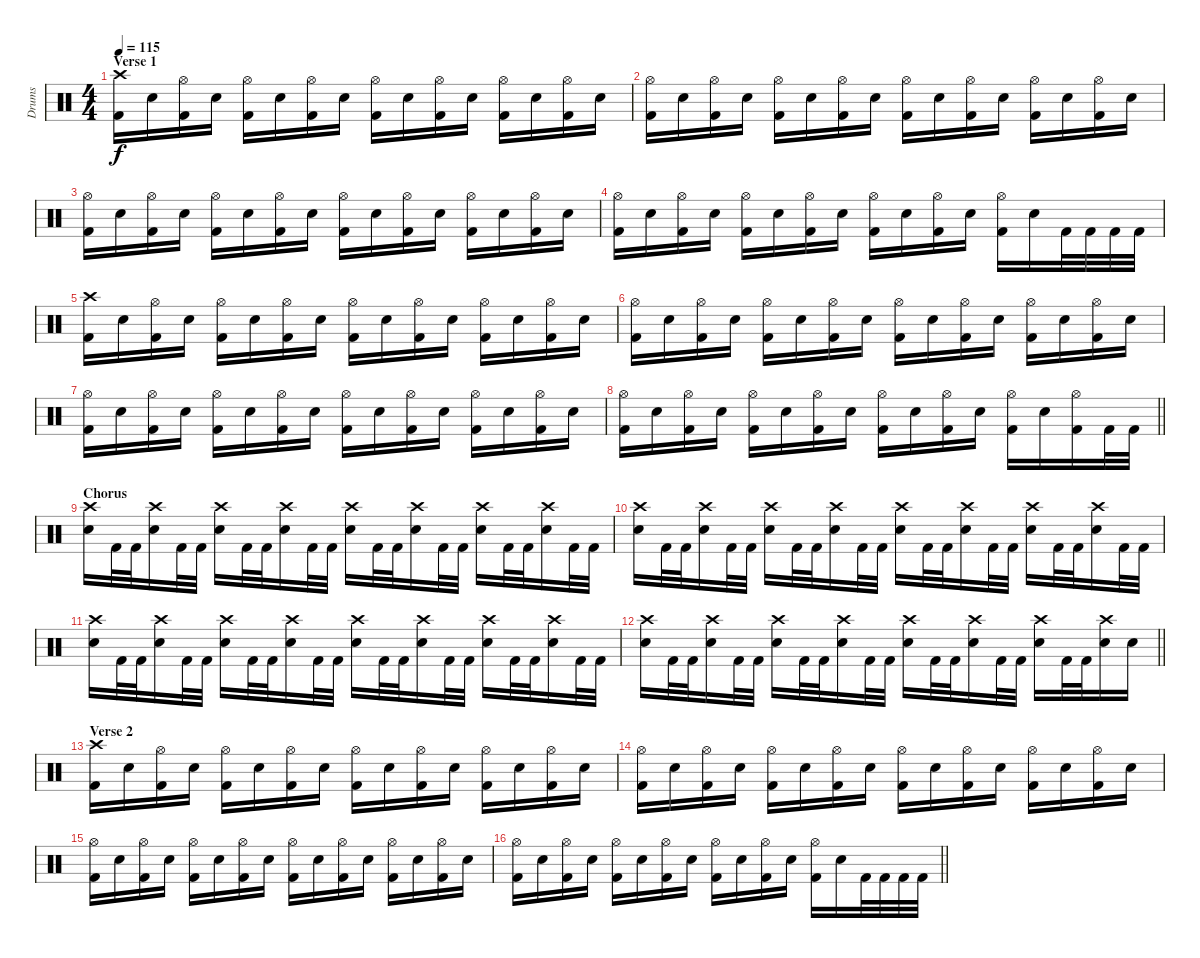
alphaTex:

\track ("Drums" "Drums") {instrument percussion}
\staff {score}
\articulation defaults
\ts (4 4)
\section ("" "Verse 1")
\tempo 115
\clef neutral
\ks c
("Crash high (hit)" "Kick (hit) 2").16{dy f} "Electric Snare (hit)".16 ("Hi-Hat (open)" "Kick (hit) 2").16 "Electric Snare (hit)".16 ("Hi-Hat (open)" "Kick (hit) 2").16 "Electric Snare (hit)".16 ("Hi-Hat (open)" "Kick (hit) 2").16 "Electric Snare (hit)".16 ("Hi-Hat (open)" "Kick (hit) 2").16 "Electric Snare (hit)".16 ("Hi-Hat (open)" "Kick (hit) 2").16 "Electric Snare (hit)".16 ("Hi-Hat (open)" "Kick (hit) 2").16 "Electric Snare (hit)".16 ("Hi-Hat (open)" "Kick (hit) 2").16 "Electric Snare (hit)".16 |
("Hi-Hat (open)" "Kick (hit) 2").16 "Electric Snare (hit)".16 ("Hi-Hat (open)" "Kick (hit) 2").16 "Electric Snare (hit)".16 ("Hi-Hat (open)" "Kick (hit) 2").16 "Electric Snare (hit)".16 ("Hi-Hat (open)" "Kick (hit) 2").16 "Electric Snare (hit)".16 ("Hi-Hat (open)" "Kick (hit) 2").16 "Electric Snare (hit)".16 ("Hi-Hat (open)" "Kick (hit) 2").16 "Electric Snare (hit)".16 ("Hi-Hat (open)" "Kick (hit) 2").16 "Electric Snare (hit)".16 ("Hi-Hat (open)" "Kick (hit) 2").16 "Electric Snare (hit)".16 |
("Hi-Hat (open)" "Kick (hit) 2").16 "Electric Snare (hit)".16 ("Hi-Hat (open)" "Kick (hit) 2").16 "Electric Snare (hit)".16 ("Hi-Hat (open)" "Kick (hit) 2").16 "Electric Snare (hit)".16 ("Hi-Hat (open)" "Kick (hit) 2").16 "Electric Snare (hit)".16 ("Hi-Hat (open)" "Kick (hit) 2").16 "Electric Snare (hit)".16 ("Hi-Hat (open)" "Kick (hit) 2").16 "Electric Snare (hit)".16 ("Hi-Hat (open)" "Kick (hit) 2").16 "Electric Snare (hit)".16 ("Hi-Hat (open)" "Kick (hit) 2").16 "Electric Snare (hit)".16 |
("Hi-Hat (open)" "Kick (hit) 2").16 "Electric Snare (hit)".16 ("Hi-Hat (open)" "Kick (hit) 2").16 "Electric Snare (hit)".16 ("Hi-Hat (open)" "Kick (hit) 2").16 "Electric Snare (hit)".16 ("Hi-Hat (open)" "Kick (hit) 2").16 "Electric Snare (hit)".16 ("Hi-Hat (open)" "Kick (hit) 2").16 "Electric Snare (hit)".16 ("Hi-Hat (open)" "Kick (hit) 2").16 "Electric Snare (hit)".16 ("Hi-Hat (open)" "Kick (hit) 2").16 "Electric Snare (hit)".16 "Kick (hit) 2".32 "Kick (hit) 2".32 "Kick (hit) 2".32 "Kick (hit) 2".32 |
("Crash high (hit)" "Kick (hit) 2").16 "Electric Snare (hit)".16 ("Hi-Hat (open)" "Kick (hit) 2").16 "Electric Snare (hit)".16 ("Hi-Hat (open)" "Kick (hit) 2").16 "Electric Snare (hit)".16 ("Hi-Hat (open)" "Kick (hit) 2").16 "Electric Snare (hit)".16 ("Hi-Hat (open)" "Kick (hit) 2").16 "Electric Snare (hit)".16 ("Hi-Hat (open)" "Kick (hit) 2").16 "Electric Snare (hit)".16 ("Hi-Hat (open)" "Kick (hit) 2").16 "Electric Snare (hit)".16 ("Hi-Hat (open)" "Kick (hit) 2").16 "Electric Snare (hit)".16 |
("Hi-Hat (open)" "Kick (hit) 2").16 "Electric Snare (hit)".16 ("Hi-Hat (open)" "Kick (hit) 2").16 "Electric Snare (hit)".16 ("Hi-Hat (open)" "Kick (hit) 2").16 "Electric Snare (hit)".16 ("Hi-Hat (open)" "Kick (hit) 2").16 "Electric Snare (hit)".16 ("Hi-Hat (open)" "Kick (hit) 2").16 "Electric Snare (hit)".16 ("Hi-Hat (open)" "Kick (hit) 2").16 "Electric Snare (hit)".16 ("Hi-Hat (open)" "Kick (hit) 2").16 "Electric Snare (hit)".16 ("Hi-Hat (open)" "Kick (hit) 2").16 "Electric Snare (hit)".16 |
("Hi-Hat (open)" "Kick (hit) 2").16 "Electric Snare (hit)".16 ("Hi-Hat (open)" "Kick (hit) 2").16 "Electric Snare (hit)".16 ("Hi-Hat (open)" "Kick (hit) 2").16 "Electric Snare (hit)".16 ("Hi-Hat (open)" "Kick (hit) 2").16 "Electric Snare (hit)".16 ("Hi-Hat (open)" "Kick (hit) 2").16 "Electric Snare (hit)".16 ("Hi-Hat (open)" "Kick (hit) 2").16 "Electric Snare (hit)".16 ("Hi-Hat (open)" "Kick (hit) 2").16 "Electric Snare (hit)".16 ("Hi-Hat (open)" "Kick (hit) 2").16 "Electric Snare (hit)".16 |
\barLineRight lightlight
("Hi-Hat (open)" "Kick (hit) 2").16 "Electric Snare (hit)".16 ("Hi-Hat (open)" "Kick (hit) 2").16 "Electric Snare (hit)".16 ("Hi-Hat (open)" "Kick (hit) 2").16 "Electric Snare (hit)".16 ("Hi-Hat (open)" "Kick (hit) 2").16 "Electric Snare (hit)".16 ("Hi-Hat (open)" "Kick (hit) 2").16 "Electric Snare (hit)".16 ("Hi-Hat (open)" "Kick (hit) 2").16 "Electric Snare (hit)".16 ("Hi-Hat (open)" "Kick (hit) 2").16 "Electric Snare (hit)".16 ("Hi-Hat (open)" "Kick (hit) 2").16 "Kick (hit) 2".32 "Kick (hit) 2".32 |
\section ("" "Chorus")
("Crash high (hit)" "Electric Snare (hit)").16 "Kick (hit) 2".32 "Kick (hit) 2".32 ("Crash high (hit)" "Electric Snare (hit)").16 "Kick (hit) 2".32 "Kick (hit) 2".32 ("Crash high (hit)" "Electric Snare (hit)").16 "Kick (hit) 2".32 "Kick (hit) 2".32 ("Crash high (hit)" "Electric Snare (hit)").16 "Kick (hit) 2".32 "Kick (hit) 2".32 ("Crash high (hit)" "Electric Snare (hit)").16 "Kick (hit) 2".32 "Kick (hit) 2".32 ("Crash high (hit)" "Electric Snare (hit)").16 "Kick (hit) 2".32 "Kick (hit) 2".32 ("Crash high (hit)" "Electric Snare (hit)").16 "Kick (hit) 2".32 "Kick (hit) 2".32 ("Crash high (hit)" "Electric Snare (hit)").16 "Kick (hit) 2".32 "Kick (hit) 2".32 |
("Crash high (hit)" "Electric Snare (hit)").16 "Kick (hit) 2".32 "Kick (hit) 2".32 ("Crash high (hit)" "Electric Snare (hit)").16 "Kick (hit) 2".32 "Kick (hit) 2".32 ("Crash high (hit)" "Electric Snare (hit)").16 "Kick (hit) 2".32 "Kick (hit) 2".32 ("Crash high (hit)" "Electric Snare (hit)").16 "Kick (hit) 2".32 "Kick (hit) 2".32 ("Crash high (hit)" "Electric Snare (hit)").16 "Kick (hit) 2".32 "Kick (hit) 2".32 ("Crash high (hit)" "Electric Snare (hit)").16 "Kick (hit) 2".32 "Kick (hit) 2".32 ("Crash high (hit)" "Electric Snare (hit)").16 "Kick (hit) 2".32 "Kick (hit) 2".32 ("Crash high (hit)" "Electric Snare (hit)").16 "Kick (hit) 2".32 "Kick (hit) 2".32 |
("Crash high (hit)" "Electric Snare (hit)").16 "Kick (hit) 2".32 "Kick (hit) 2".32 ("Crash high (hit)" "Electric Snare (hit)").16 "Kick (hit) 2".32 "Kick (hit) 2".32 ("Crash high (hit)" "Electric Snare (hit)").16 "Kick (hit) 2".32 "Kick (hit) 2".32 ("Crash high (hit)" "Electric Snare (hit)").16 "Kick (hit) 2".32 "Kick (hit) 2".32 ("Crash high (hit)" "Electric Snare (hit)").16 "Kick (hit) 2".32 "Kick (hit) 2".32 ("Crash high (hit)" "Electric Snare (hit)").16 "Kick (hit) 2".32 "Kick (hit) 2".32 ("Crash high (hit)" "Electric Snare (hit)").16 "Kick (hit) 2".32 "Kick (hit) 2".32 ("Crash high (hit)" "Electric Snare (hit)").16 "Kick (hit) 2".32 "Kick (hit) 2".32 |
\barLineRight lightlight
("Crash high (hit)" "Electric Snare (hit)").16 "Kick (hit) 2".32 "Kick (hit) 2".32 ("Crash high (hit)" "Electric Snare (hit)").16 "Kick (hit) 2".32 "Kick (hit) 2".32 ("Crash high (hit)" "Electric Snare (hit)").16 "Kick (hit) 2".32 "Kick (hit) 2".32 ("Crash high (hit)" "Electric Snare (hit)").16 "Kick (hit) 2".32 "Kick (hit) 2".32 ("Crash high (hit)" "Electric Snare (hit)").16 "Kick (hit) 2".32 "Kick (hit) 2".32 ("Crash high (hit)" "Electric Snare (hit)").16 "Kick (hit) 2".32 "Kick (hit) 2".32 ("Crash high (hit)" "Electric Snare (hit)").16 "Kick (hit) 2".32 "Kick (hit) 2".32 ("Crash high (hit)" "Electric Snare (hit)").16 "Electric Snare (hit)".16 |
\section ("" "Verse 2")
("Crash high (hit)" "Kick (hit) 2").16 "Electric Snare (hit)".16 ("Hi-Hat (open)" "Kick (hit) 2").16 "Electric Snare (hit)".16 ("Hi-Hat (open)" "Kick (hit) 2").16 "Electric Snare (hit)".16 ("Hi-Hat (open)" "Kick (hit) 2").16 "Electric Snare (hit)".16 ("Hi-Hat (open)" "Kick (hit) 2").16 "Electric Snare (hit)".16 ("Hi-Hat (open)" "Kick (hit) 2").16 "Electric Snare (hit)".16 ("Hi-Hat (open)" "Kick (hit) 2").16 "Electric Snare (hit)".16 ("Hi-Hat (open)" "Kick (hit) 2").16 "Electric Snare (hit)".16 |
("Hi-Hat (open)" "Kick (hit) 2").16 "Electric Snare (hit)".16 ("Hi-Hat (open)" "Kick (hit) 2").16 "Electric Snare (hit)".16 ("Hi-Hat (open)" "Kick (hit) 2").16 "Electric Snare (hit)".16 ("Hi-Hat (open)" "Kick (hit) 2").16 "Electric Snare (hit)".16 ("Hi-Hat (open)" "Kick (hit) 2").16 "Electric Snare (hit)".16 ("Hi-Hat (open)" "Kick (hit) 2").16 "Electric Snare (hit)".16 ("Hi-Hat (open)" "Kick (hit) 2").16 "Electric Snare (hit)".16 ("Hi-Hat (open)" "Kick (hit) 2").16 "Electric Snare (hit)".16 |
("Hi-Hat (open)" "Kick (hit) 2").16 "Electric Snare (hit)".16 ("Hi-Hat (open)" "Kick (hit) 2").16 "Electric Snare (hit)".16 ("Hi-Hat (open)" "Kick (hit) 2").16 "Electric Snare (hit)".16 ("Hi-Hat (open)" "Kick (hit) 2").16 "Electric Snare (hit)".16 ("Hi-Hat (open)" "Kick (hit) 2").16 "Electric Snare (hit)".16 ("Hi-Hat (open)" "Kick (hit) 2").16 "Electric Snare (hit)".16 ("Hi-Hat (open)" "Kick (hit) 2").16 "Electric Snare (hit)".16 ("Hi-Hat (open)" "Kick (hit) 2").16 "Electric Snare (hit)".16 |
\barLineRight lightlight
("Hi-Hat (open)" "Kick (hit) 2").16 "Electric Snare (hit)".16 ("Hi-Hat (open)" "Kick (hit) 2").16 "Electric Snare (hit)".16 ("Hi-Hat (open)" "Kick (hit) 2").16 "Electric Snare (hit)".16 ("Hi-Hat (open)" "Kick (hit) 2").16 "Electric Snare (hit)".16 ("Hi-Hat (open)" "Kick (hit) 2").16 "Electric Snare (hit)".16 ("Hi-Hat (open)" "Kick (hit) 2").16 "Electric Snare (hit)".16 ("Hi-Hat (open)" "Kick (hit) 2").16 "Electric Snare (hit)".16 "Kick (hit) 2".32 "Kick (hit) 2".32 "Kick (hit) 2".32 "Kick (hit) 2".32
